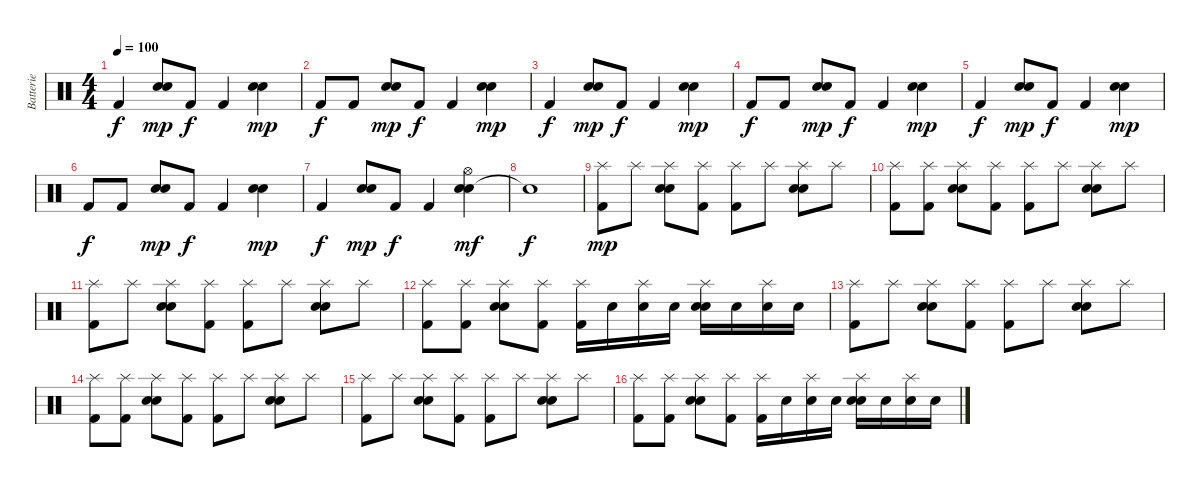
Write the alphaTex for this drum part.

\track ("Batterie" "Batterie") {instrument percussion}
\staff {score}
\articulation defaults
\ts (4 4)
\tempo 100
\clef neutral
\ks c "Kick (hit) 2".4{dy f}
("Hand Clap (hit)" "Snare (hit) 2").8{dy mp} "Kick (hit) 2".8{dy f} "Kick (hit) 2".4 ("Hand Clap (hit)" "Snare (hit) 2").4{dy mp} |
"Kick (hit) 2".8{dy f} "Kick (hit) 2".8 ("Hand Clap (hit)" "Snare (hit) 2").8{dy mp} "Kick (hit) 2".8{dy f} "Kick (hit) 2".4 ("Hand Clap (hit)" "Snare (hit) 2").4{dy mp} |
"Kick (hit) 2".4{dy f} ("Hand Clap (hit)" "Snare (hit) 2").8{dy mp} "Kick (hit) 2".8{dy f} "Kick (hit) 2".4 ("Hand Clap (hit)" "Snare (hit) 2").4{dy mp} |
"Kick (hit) 2".8{dy f} "Kick (hit) 2".8 ("Hand Clap (hit)" "Snare (hit) 2").8{dy mp} "Kick (hit) 2".8{dy f} "Kick (hit) 2".4 ("Hand Clap (hit)" "Snare (hit) 2").4{dy mp} |
"Kick (hit) 2".4{dy f} ("Hand Clap (hit)" "Snare (hit) 2").8{dy mp} "Kick (hit) 2".8{dy f} "Kick (hit) 2".4 ("Hand Clap (hit)" "Snare (hit) 2").4{dy mp} |
"Kick (hit) 2".8{dy f} "Kick (hit) 2".8 ("Hand Clap (hit)" "Snare (hit) 2").8{dy mp} "Kick (hit) 2".8{dy f} "Kick (hit) 2".4 ("Hand Clap (hit)" "Snare (hit) 2").4{dy mp} |
"Kick (hit) 2".4{dy f} ("Hand Clap (hit)" "Snare (hit) 2").8{dy mp} "Kick (hit) 2".8{dy f} "Kick (hit) 2".4 ("Hand Clap (hit)" "Snare (hit) 2" "Hi-Hat (open)").4{dy mf} |
"Snare (hit)"{t}.1{dy f} |
("Kick (hit) 2" "Splash (hit)").8{dy mp} "Splash (hit)".8 ("Hand Clap (hit)" "Electric Snare (hit)" "Splash (hit)").8 ("Kick (hit) 2" "Splash (hit)").8 ("Kick (hit) 2" "Splash (hit)").8 "Splash (hit)".8 ("Hand Clap (hit)" "Electric Snare (hit)" "Splash (hit)").8 "Splash (hit)".8 |
("Kick (hit) 2" "Splash (hit)").8 ("Kick (hit) 2" "Splash (hit)").8 ("Hand Clap (hit)" "Electric Snare (hit)" "Splash (hit)").8 ("Kick (hit) 2" "Splash (hit)").8 ("Kick (hit) 2" "Splash (hit)").8 "Splash (hit)".8 ("Hand Clap (hit)" "Electric Snare (hit)" "Splash (hit)").8 "Splash (hit)".8 |
("Kick (hit) 2" "Splash (hit)").8 "Splash (hit)".8 ("Hand Clap (hit)" "Electric Snare (hit)" "Splash (hit)").8 ("Kick (hit) 2" "Splash (hit)").8 ("Kick (hit) 2" "Splash (hit)").8 "Splash (hit)".8 ("Hand Clap (hit)" "Electric Snare (hit)" "Splash (hit)").8 "Splash (hit)".8 |
("Kick (hit) 2" "Splash (hit)").8 ("Kick (hit) 2" "Splash (hit)").8 ("Hand Clap (hit)" "Electric Snare (hit)" "Splash (hit)").8 ("Kick (hit) 2" "Splash (hit)").8 ("Kick (hit) 2" "Splash (hit)").16 "Electric Snare (hit)".16 ("Electric Snare (hit)" "Splash (hit)").16 "Electric Snare (hit)".16 ("Hand Clap (hit)" "Electric Snare (hit)" "Splash (hit)").16 "Electric Snare (hit)".16 ("Electric Snare (hit)" "Splash (hit)").16 "Electric Snare (hit)".16 |
("Kick (hit) 2" "Splash (hit)").8 "Splash (hit)".8 ("Hand Clap (hit)" "Electric Snare (hit)" "Splash (hit)").8 ("Kick (hit) 2" "Splash (hit)").8 ("Kick (hit) 2" "Splash (hit)").8 "Splash (hit)".8 ("Hand Clap (hit)" "Electric Snare (hit)" "Splash (hit)").8 "Splash (hit)".8 |
("Kick (hit) 2" "Splash (hit)").8 ("Kick (hit) 2" "Splash (hit)").8 ("Hand Clap (hit)" "Electric Snare (hit)" "Splash (hit)").8 ("Kick (hit) 2" "Splash (hit)").8 ("Kick (hit) 2" "Splash (hit)").8 "Splash (hit)".8 ("Hand Clap (hit)" "Electric Snare (hit)" "Splash (hit)").8 "Splash (hit)".8 |
("Kick (hit) 2" "Splash (hit)").8 "Splash (hit)".8 ("Hand Clap (hit)" "Electric Snare (hit)" "Splash (hit)").8 ("Kick (hit) 2" "Splash (hit)").8 ("Kick (hit) 2" "Splash (hit)").8 "Splash (hit)".8 ("Hand Clap (hit)" "Electric Snare (hit)" "Splash (hit)").8 "Splash (hit)".8 |
("Kick (hit) 2" "Splash (hit)").8 ("Kick (hit) 2" "Splash (hit)").8 ("Hand Clap (hit)" "Electric Snare (hit)" "Splash (hit)").8 ("Kick (hit) 2" "Splash (hit)").8 ("Kick (hit) 2" "Splash (hit)").16 "Electric Snare (hit)".16 ("Electric Snare (hit)" "Splash (hit)").16 "Electric Snare (hit)".16 ("Hand Clap (hit)" "Electric Snare (hit)" "Splash (hit)").16 "Electric Snare (hit)".16 ("Electric Snare (hit)" "Splash (hit)").16 "Electric Snare (hit)".16
